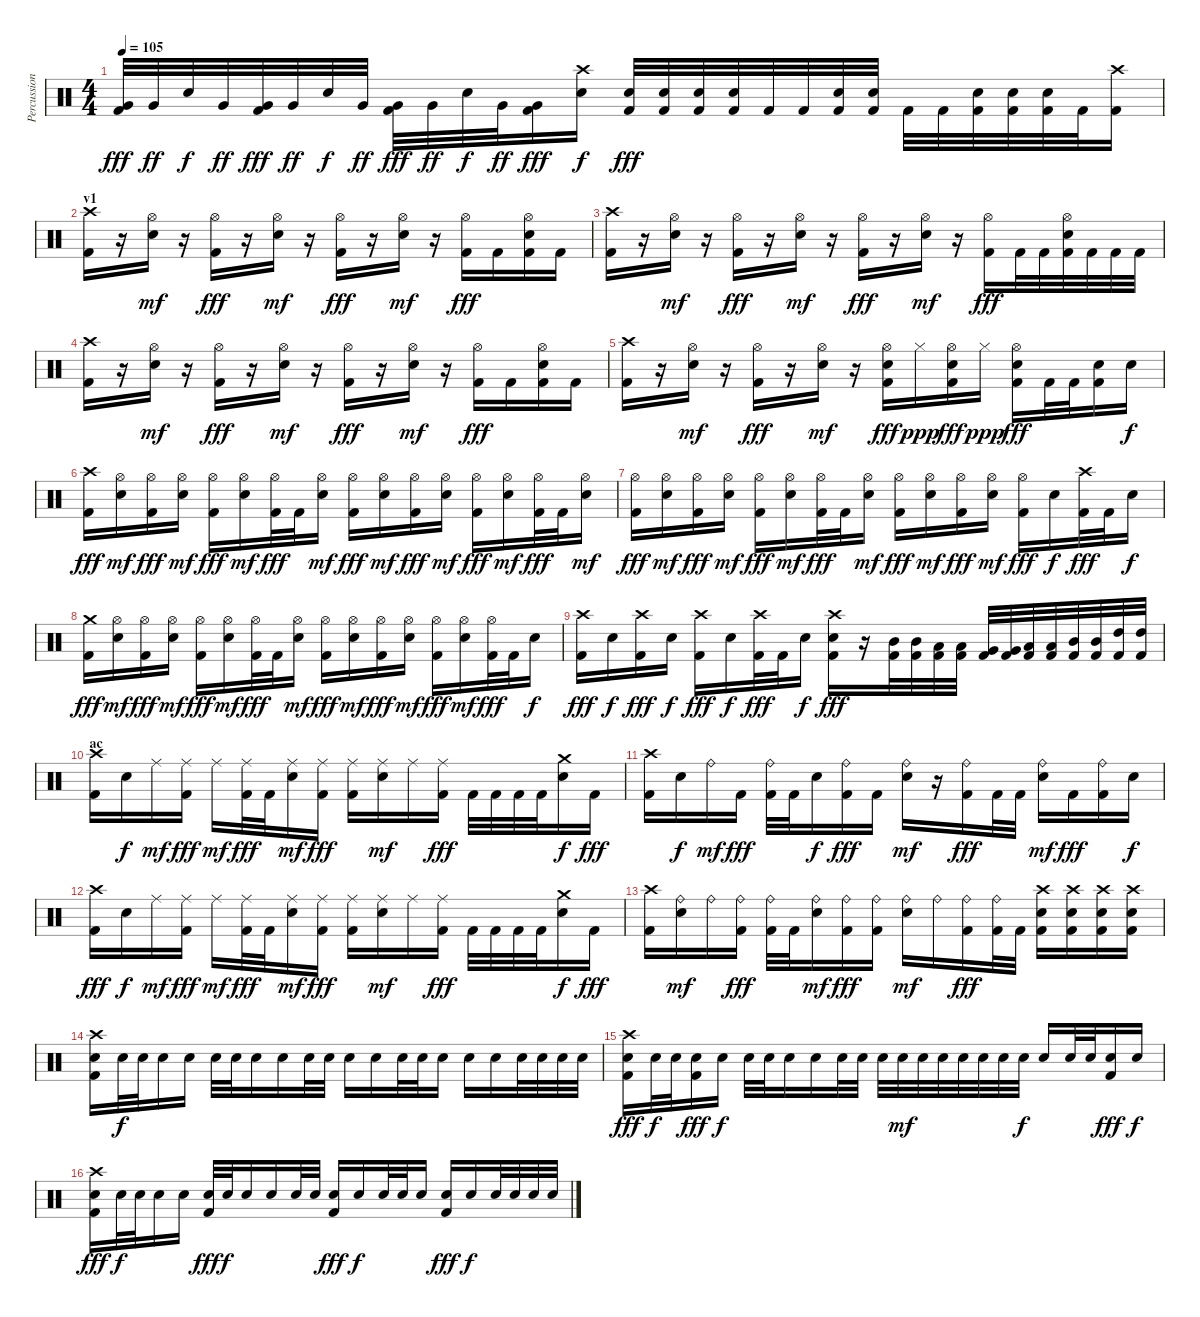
\track ("Percussion" "Percussion") {instrument percussion}
\staff {score}
\articulation defaults
\ts (4 4)
\tempo 105
\clef neutral
\ks c
("Very Low Tom (hit)" "Kick (hit) 2").32{dy fff} "Very Low Tom (hit)".32{dy ff} "Snare (hit) 2".32{dy f} "Very Low Tom (hit)".32{dy ff} ("Very Low Tom (hit)" "Kick (hit) 2").32{dy fff} "Very Low Tom (hit)".32{dy ff} "Snare (hit) 2".32{dy f} "Very Low Tom (hit)".32{dy ff} ("Very Low Tom (hit)" "Kick (hit) 2").32{dy fff} "Very Low Tom (hit)".32{dy ff} "Snare (hit) 2".32{dy f} "Very Low Tom (hit)".32{dy ff} ("Very Low Tom (hit)" "Kick (hit) 2").16{dy fff} ("Crash high (hit)" "Snare (hit) 2").16{dy f} ("Snare (hit) 2" "Kick (hit) 2").32{dy fff} ("Snare (hit) 2" "Kick (hit) 2").32 ("Snare (hit) 2" "Kick (hit) 2").32 ("Snare (hit) 2" "Kick (hit) 2").32 "Kick (hit) 2".32 "Kick (hit) 2".32 ("Snare (hit) 2" "Kick (hit) 2").32 ("Snare (hit) 2" "Kick (hit) 2").32 "Kick (hit) 2".32 "Kick (hit) 2".32 ("Snare (hit) 2" "Kick (hit) 2").32 ("Snare (hit) 2" "Kick (hit) 2").32 ("Snare (hit) 2" "Kick (hit) 2").32 "Kick (hit) 2".32 ("Crash high (hit)" "Kick (hit) 2").16 |
\section ("" "v1")
("Crash high (hit)" "Kick (hit) 2").16 r.16 ("Hi-Hat (open)" "Snare (hit) 2").16{dy mf} r.16 ("Hi-Hat (open)" "Kick (hit) 2").16{dy fff} r.16 ("Hi-Hat (open)" "Snare (hit) 2").16{dy mf} r.16 ("Hi-Hat (open)" "Kick (hit) 2").16{dy fff} r.16 ("Hi-Hat (open)" "Snare (hit) 2").16{dy mf} r.16 ("Hi-Hat (open)" "Kick (hit) 2").16{dy fff} "Kick (hit) 2".16 ("Hi-Hat (open)" "Snare (hit) 2" "Kick (hit) 2").16 "Kick (hit) 2".16 |
("Crash high (hit)" "Kick (hit) 2").16 r.16 ("Hi-Hat (open)" "Snare (hit) 2").16{dy mf} r.16 ("Hi-Hat (open)" "Kick (hit) 2").16{dy fff} r.16 ("Hi-Hat (open)" "Snare (hit) 2").16{dy mf} r.16 ("Hi-Hat (open)" "Kick (hit) 2").16{dy fff} r.16 ("Hi-Hat (open)" "Snare (hit) 2").16{dy mf} r.16 ("Hi-Hat (open)" "Kick (hit) 2").16{dy fff} "Kick (hit) 2".32 "Kick (hit) 2".32 ("Hi-Hat (open)" "Snare (hit) 2" "Kick (hit) 2").32 "Kick (hit) 2".32 "Kick (hit) 2".32 "Kick (hit) 2".32 |
("Crash high (hit)" "Kick (hit) 2").16 r.16 ("Hi-Hat (open)" "Snare (hit) 2").16{dy mf} r.16 ("Hi-Hat (open)" "Kick (hit) 2").16{dy fff} r.16 ("Hi-Hat (open)" "Snare (hit) 2").16{dy mf} r.16 ("Hi-Hat (open)" "Kick (hit) 2").16{dy fff} r.16 ("Hi-Hat (open)" "Snare (hit) 2").16{dy mf} r.16 ("Hi-Hat (open)" "Kick (hit) 2").16{dy fff} "Kick (hit) 2".16 ("Hi-Hat (open)" "Snare (hit) 2" "Kick (hit) 2").16 "Kick (hit) 2".16 |
("Crash high (hit)" "Kick (hit) 2").16 r.16 ("Hi-Hat (open)" "Snare (hit) 2").16{dy mf} r.16 ("Hi-Hat (open)" "Kick (hit) 2").16{dy fff} r.16 ("Hi-Hat (open)" "Snare (hit) 2").16{dy mf} r.16 ("Hi-Hat (open)" "Snare (hit) 2" "Kick (hit) 2").16{dy fff} "Hi-Hat (closed)".16{dy ppp} ("Hi-Hat (open)" "Snare (hit) 2" "Kick (hit) 2").16{dy fff} "Hi-Hat (closed)".16{dy ppp} ("Hi-Hat (open)" "Snare (hit) 2" "Kick (hit) 2").16{dy fff} "Kick (hit) 2".32 "Kick (hit) 2".32 ("Snare (hit) 2" "Kick (hit) 2").16 "Snare (hit) 2".16{dy f} |
("Crash high (hit)" "Kick (hit) 2").16{dy fff} ("Hi-Hat (open)" "Snare (hit) 2").16{dy mf} ("Hi-Hat (open)" "Kick (hit) 2").16{dy fff} ("Hi-Hat (open)" "Snare (hit) 2").16{dy mf} ("Hi-Hat (open)" "Kick (hit) 2").16{dy fff} ("Hi-Hat (open)" "Snare (hit) 2").16{dy mf} ("Hi-Hat (open)" "Kick (hit) 2").32{dy fff} "Kick (hit) 2".32 ("Hi-Hat (open)" "Snare (hit) 2").16{dy mf} ("Hi-Hat (open)" "Kick (hit) 2").16{dy fff} ("Hi-Hat (open)" "Snare (hit) 2").16{dy mf} ("Hi-Hat (open)" "Kick (hit) 2").16{dy fff} ("Hi-Hat (open)" "Snare (hit) 2").16{dy mf} ("Hi-Hat (open)" "Kick (hit) 2").16{dy fff} ("Hi-Hat (open)" "Snare (hit) 2").16{dy mf} ("Hi-Hat (open)" "Kick (hit) 2").32{dy fff} "Kick (hit) 2".32 ("Hi-Hat (open)" "Snare (hit) 2").16{dy mf} |
("Hi-Hat (open)" "Kick (hit) 2").16{dy fff} ("Hi-Hat (open)" "Snare (hit) 2").16{dy mf} ("Hi-Hat (open)" "Kick (hit) 2").16{dy fff} ("Hi-Hat (open)" "Snare (hit) 2").16{dy mf} ("Hi-Hat (open)" "Kick (hit) 2").16{dy fff} ("Hi-Hat (open)" "Snare (hit) 2").16{dy mf} ("Hi-Hat (open)" "Kick (hit) 2").32{dy fff} "Kick (hit) 2".32 ("Hi-Hat (open)" "Snare (hit) 2").16{dy mf} ("Hi-Hat (open)" "Kick (hit) 2").16{dy fff} ("Hi-Hat (open)" "Snare (hit) 2").16{dy mf} ("Hi-Hat (open)" "Kick (hit) 2").16{dy fff} ("Hi-Hat (open)" "Snare (hit) 2").16{dy mf} ("Hi-Hat (open)" "Kick (hit) 2").16{dy fff} "Snare (hit) 2".16{dy f} ("Crash high (hit)" "Kick (hit) 2").32{dy fff} "Kick (hit) 2".32 "Snare (hit) 2".16{dy f} |
("Crash medium (hit)" "Kick (hit) 2").16{dy fff} ("Hi-Hat (open)" "Snare (hit) 2").16{dy mf} ("Hi-Hat (open)" "Kick (hit) 2").16{dy fff} ("Hi-Hat (open)" "Snare (hit) 2").16{dy mf} ("Hi-Hat (open)" "Kick (hit) 2").16{dy fff} ("Hi-Hat (open)" "Snare (hit) 2").16{dy mf} ("Hi-Hat (open)" "Kick (hit) 2").32{dy fff} "Kick (hit) 2".32 ("Hi-Hat (open)" "Snare (hit) 2").16{dy mf} ("Hi-Hat (open)" "Kick (hit) 2").16{dy fff} ("Hi-Hat (open)" "Snare (hit) 2").16{dy mf} ("Hi-Hat (open)" "Kick (hit) 2").16{dy fff} ("Hi-Hat (open)" "Snare (hit) 2").16{dy mf} ("Hi-Hat (open)" "Kick (hit) 2").16{dy fff} ("Hi-Hat (open)" "Snare (hit) 2").16{dy mf} ("Hi-Hat (open)" "Kick (hit) 2").32{dy fff} "Kick (hit) 2".32 "Snare (hit) 2".16{dy f} |
("Crash high (hit)" "Kick (hit) 2").16{dy fff} "Snare (hit) 2".16{dy f} ("Crash high (hit)" "Kick (hit) 2").16{dy fff} "Snare (hit) 2".16{dy f} ("Crash high (hit)" "Kick (hit) 2").16{dy fff} "Snare (hit) 2".16{dy f} ("Crash high (hit)" "Kick (hit) 2").32{dy fff} "Kick (hit) 2".32 "Snare (hit) 2".16{dy f} ("Crash high (hit)" "Snare (hit) 2" "Kick (hit) 2").16{dy fff} r.16 ("Mid Tom (hit)" "Kick (hit) 2").32 ("Mid Tom (hit)" "Kick (hit) 2").32 ("Low Tom (hit)" "Kick (hit) 2").32 ("Low Tom (hit)" "Kick (hit) 2").32 ("Very Low Tom (hit)" "Kick (hit) 2").32 ("Very Low Tom (hit)" "Kick (hit) 2").32 ("Low Tom (hit)" "Kick (hit) 2").32 ("Low Tom (hit)" "Kick (hit) 2").32 ("Mid Tom (hit)" "Kick (hit) 2").32 ("Mid Tom (hit)" "Kick (hit) 2").32 ("High Tom (hit)" "Kick (hit) 2").32 ("High Tom (hit)" "Kick (hit) 2").32 |
\section ("" "ac")
("Crash high (hit)" "Kick (hit) 2").16 "Snare (hit) 2".16{dy f} "Ride (middle)".16{dy mf} ("Ride (middle)" "Kick (hit) 2").16{dy fff} "Ride (middle)".16{dy mf} ("Ride (middle)" "Kick (hit) 2").32{dy fff} "Kick (hit) 2".32 ("Ride (middle)" "Snare (hit) 2").16{dy mf} ("Ride (middle)" "Kick (hit) 2").16{dy fff} ("Ride (middle)" "Kick (hit) 2").16 ("Ride (middle)" "Snare (hit) 2").16{dy mf} "Ride (middle)".16 ("Ride (middle)" "Kick (hit) 2").16{dy fff} "Kick (hit) 2".32 "Kick (hit) 2".32 "Kick (hit) 2".32 "Kick (hit) 2".32 ("Crash medium (hit)" "Snare (hit) 2").16{dy f} "Kick (hit) 2".16{dy fff} |
("Crash high (hit)" "Kick (hit) 2").16 "Snare (hit) 2".16{dy f} "Ride (bell)".16{dy mf} "Kick (hit) 2".16{dy fff} ("Ride (bell)" "Kick (hit) 2").32 "Kick (hit) 2".32 "Snare (hit) 2".16{dy f} ("Ride (bell)" "Kick (hit) 2").16{dy fff} "Kick (hit) 2".16 ("Ride (bell)" "Snare (hit) 2").16{dy mf} r.16 ("Ride (bell)" "Kick (hit) 2").16{dy fff} "Kick (hit) 2".32 "Kick (hit) 2".32 ("Ride (bell)" "Snare (hit) 2").16{dy mf} "Kick (hit) 2".16{dy fff} ("Ride (bell)" "Kick (hit) 2").16 "Snare (hit) 2".16{dy f} |
("Crash high (hit)" "Kick (hit) 2").16{dy fff} "Snare (hit) 2".16{dy f} "Ride (middle)".16{dy mf} ("Ride (middle)" "Kick (hit) 2").16{dy fff} "Ride (middle)".16{dy mf} ("Ride (middle)" "Kick (hit) 2").32{dy fff} "Kick (hit) 2".32 ("Ride (middle)" "Snare (hit) 2").16{dy mf} ("Ride (middle)" "Kick (hit) 2").16{dy fff} ("Ride (middle)" "Kick (hit) 2").16 ("Ride (middle)" "Snare (hit) 2").16{dy mf} "Ride (middle)".16 ("Ride (middle)" "Kick (hit) 2").16{dy fff} "Kick (hit) 2".32 "Kick (hit) 2".32 "Kick (hit) 2".32 "Kick (hit) 2".32 ("Crash medium (hit)" "Snare (hit) 2").16{dy f} "Kick (hit) 2".16{dy fff} |
("Crash high (hit)" "Kick (hit) 2").16 ("Ride (bell)" "Snare (hit) 2").16{dy mf} "Ride (bell)".16 ("Ride (bell)" "Kick (hit) 2").16{dy fff} ("Ride (bell)" "Kick (hit) 2").32 "Kick (hit) 2".32 ("Ride (bell)" "Snare (hit) 2").16{dy mf} ("Ride (bell)" "Kick (hit) 2").16{dy fff} ("Ride (bell)" "Kick (hit) 2").16 ("Ride (bell)" "Snare (hit) 2").16{dy mf} "Ride (bell)".16 ("Ride (bell)" "Kick (hit) 2").16{dy fff} ("Ride (bell)" "Kick (hit) 2").32 "Kick (hit) 2".32 ("Crash high (hit)" "Snare (hit) 2" "Kick (hit) 2").16 ("Crash high (hit)" "Snare (hit) 2" "Kick (hit) 2").16 ("Crash high (hit)" "Snare (hit) 2" "Kick (hit) 2").16 ("Crash high (hit)" "Snare (hit) 2" "Kick (hit) 2").16 |
\section ("" "")
("Crash high (hit)" "Snare (hit) 2" "Kick (hit) 2").16 "Snare (hit) 2".32{dy f} "Snare (hit) 2".32 "Snare (hit) 2".16 "Snare (hit) 2".16 "Snare (hit) 2".32 "Snare (hit) 2".32 "Snare (hit) 2".16 "Snare (hit) 2".16 "Snare (hit) 2".32 "Snare (hit) 2".32 "Snare (hit) 2".16 "Snare (hit) 2".16 "Snare (hit) 2".32 "Snare (hit) 2".32 "Snare (hit) 2".16 "Snare (hit) 2".16 "Snare (hit) 2".16 "Snare (hit) 2".32 "Snare (hit) 2".32 "Snare (hit) 2".32 "Snare (hit) 2".32 |
("Crash high (hit)" "Snare (hit) 2" "Kick (hit) 2").16{dy fff} "Snare (hit) 2".32{dy f} "Snare (hit) 2".32 ("Snare (hit) 2" "Kick (hit) 2").16{dy fff} "Snare (hit) 2".16{dy f} "Snare (hit) 2".32 "Snare (hit) 2".32 "Snare (hit) 2".16 "Snare (hit) 2".16 "Snare (hit) 2".32 "Snare (hit) 2".32 "Snare (hit) 2".32 "Snare (hit) 2".32{dy mf} "Snare (hit) 2".32 "Snare (hit) 2".32 "Snare (hit) 2".32 "Snare (hit) 2".32 "Snare (hit) 2".32 "Snare (hit) 2".32{dy f} "Snare (hit) 2".16 "Snare (hit) 2".32 "Snare (hit) 2".32 ("Snare (hit) 2" "Kick (hit) 2").16{dy fff} "Snare (hit) 2".16{dy f} |
("Crash high (hit)" "Snare (hit) 2" "Kick (hit) 2").16{dy fff} "Snare (hit) 2".32{dy f} "Snare (hit) 2".32 "Snare (hit) 2".16 "Snare (hit) 2".16 ("Snare (hit) 2" "Kick (hit) 2").32{dy fff} "Snare (hit) 2".32{dy f} "Snare (hit) 2".16 "Snare (hit) 2".16 "Snare (hit) 2".32 "Snare (hit) 2".32 ("Snare (hit) 2" "Kick (hit) 2").16{dy fff} "Snare (hit) 2".16{dy f} "Snare (hit) 2".32 "Snare (hit) 2".32 "Snare (hit) 2".16 ("Snare (hit) 2" "Kick (hit) 2").16{dy fff} "Snare (hit) 2".16{dy f} "Snare (hit) 2".32 "Snare (hit) 2".32 "Snare (hit) 2".32 "Snare (hit) 2".32
